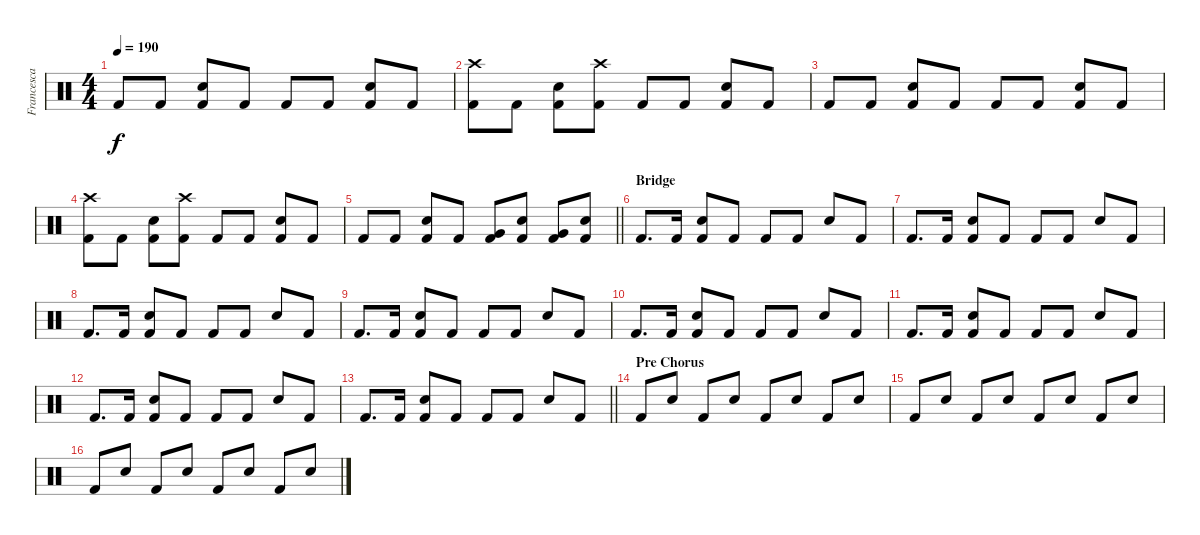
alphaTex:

\track ("Francesca Tresca" "Francesca ") {instrument percussion}
\staff {score}
\articulation defaults
\ts (4 4)
\tempo 190
\clef neutral
\ks c "Kick (hit) 2".8{dy f} "Kick (hit) 2".8
("Snare (hit) 2" "Kick (hit) 2").8 "Kick (hit) 2".8 "Kick (hit) 2".8 "Kick (hit) 2".8 ("Snare (hit) 2" "Kick (hit) 2").8 "Kick (hit) 2".8 |
("Crash high (hit)" "Kick (hit) 2").8 "Kick (hit) 2".8 ("Snare (hit) 2" "Kick (hit) 2").8 ("Crash high (hit)" "Kick (hit) 2").8 "Kick (hit) 2".8 "Kick (hit) 2".8 ("Snare (hit) 2" "Kick (hit) 2").8 "Kick (hit) 2".8 |
"Kick (hit) 2".8 "Kick (hit) 2".8 ("Snare (hit) 2" "Kick (hit) 2").8 "Kick (hit) 2".8 "Kick (hit) 2".8 "Kick (hit) 2".8 ("Snare (hit) 2" "Kick (hit) 2").8 "Kick (hit) 2".8 |
("Crash high (hit)" "Kick (hit) 2").8 "Kick (hit) 2".8 ("Snare (hit) 2" "Kick (hit) 2").8 ("Crash high (hit)" "Kick (hit) 2").8 "Kick (hit) 2".8 "Kick (hit) 2".8 ("Snare (hit) 2" "Kick (hit) 2").8 "Kick (hit) 2".8 |
\barLineRight lightlight "Kick (hit) 2".8 "Kick (hit) 2".8
("Snare (hit) 2" "Kick (hit) 2").8 "Kick (hit) 2".8 ("Very Low Tom (hit)" "Kick (hit) 2").8 ("Snare (hit) 2" "Kick (hit) 2").8 ("Very Low Tom (hit)" "Kick (hit) 2").8 ("Snare (hit) 2" "Kick (hit) 2").8 |
\section ("" "Bridge")
"Kick (hit) 2".8{d} "Kick (hit) 2".16 ("Snare (hit) 2" "Kick (hit) 2").8 "Kick (hit) 2".8 "Kick (hit) 2".8 "Kick (hit) 2".8 "Snare (hit) 2".8 "Kick (hit) 2".8 |
"Kick (hit) 2".8{d} "Kick (hit) 2".16 ("Snare (hit) 2" "Kick (hit) 2").8 "Kick (hit) 2".8 "Kick (hit) 2".8 "Kick (hit) 2".8 "Snare (hit) 2".8 "Kick (hit) 2".8 |
"Kick (hit) 2".8{d} "Kick (hit) 2".16 ("Snare (hit) 2" "Kick (hit) 2").8 "Kick (hit) 2".8 "Kick (hit) 2".8 "Kick (hit) 2".8 "Snare (hit) 2".8 "Kick (hit) 2".8 |
"Kick (hit) 2".8{d} "Kick (hit) 2".16 ("Snare (hit) 2" "Kick (hit) 2").8 "Kick (hit) 2".8 "Kick (hit) 2".8 "Kick (hit) 2".8 "Snare (hit) 2".8 "Kick (hit) 2".8 |
"Kick (hit) 2".8{d} "Kick (hit) 2".16 ("Snare (hit) 2" "Kick (hit) 2").8 "Kick (hit) 2".8 "Kick (hit) 2".8 "Kick (hit) 2".8 "Snare (hit) 2".8 "Kick (hit) 2".8 |
"Kick (hit) 2".8{d} "Kick (hit) 2".16 ("Snare (hit) 2" "Kick (hit) 2").8 "Kick (hit) 2".8 "Kick (hit) 2".8 "Kick (hit) 2".8 "Snare (hit) 2".8 "Kick (hit) 2".8 |
"Kick (hit) 2".8{d} "Kick (hit) 2".16 ("Snare (hit) 2" "Kick (hit) 2").8 "Kick (hit) 2".8 "Kick (hit) 2".8 "Kick (hit) 2".8 "Snare (hit) 2".8 "Kick (hit) 2".8 |
\barLineRight lightlight "Kick (hit) 2".8{d} "Kick (hit) 2".16
("Snare (hit) 2" "Kick (hit) 2").8 "Kick (hit) 2".8 "Kick (hit) 2".8 "Kick (hit) 2".8 "Snare (hit) 2".8 "Kick (hit) 2".8 |
\section ("" "Pre Chorus")
"Kick (hit) 2".8 "Snare (hit) 2".8 "Kick (hit) 2".8 "Snare (hit) 2".8 "Kick (hit) 2".8 "Snare (hit) 2".8 "Kick (hit) 2".8 "Snare (hit) 2".8 |
"Kick (hit) 2".8 "Snare (hit) 2".8 "Kick (hit) 2".8 "Snare (hit) 2".8 "Kick (hit) 2".8 "Snare (hit) 2".8 "Kick (hit) 2".8 "Snare (hit) 2".8 |
"Kick (hit) 2".8 "Snare (hit) 2".8 "Kick (hit) 2".8 "Snare (hit) 2".8 "Kick (hit) 2".8 "Snare (hit) 2".8 "Kick (hit) 2".8 "Snare (hit) 2".8
